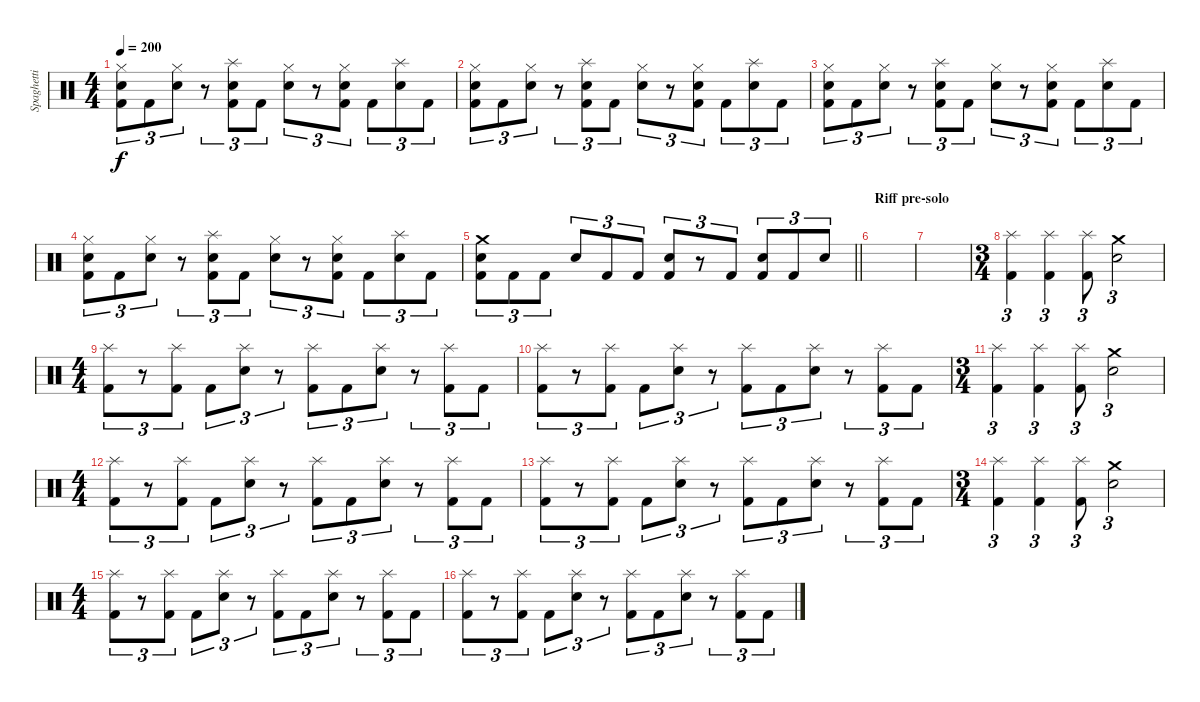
\track ("Spaghetti" "Spaghetti") {instrument percussion}
\staff {score}
\articulation defaults
\ts (4 4)
\tempo 200
\clef neutral
\ks c
("Hi-Hat (closed)" "Snare (hit) 2" "Kick (hit) 2").8{tu (3 2) dy f} "Kick (hit) 2".8{tu (3 2)} ("Hi-Hat (closed)" "Snare (hit) 2").8{tu (3 2)} r.8{tu (3 2)} ("Splash (hit)" "Snare (hit) 2" "Kick (hit) 2").8{tu (3 2)} "Kick (hit) 2".8{tu (3 2)} ("Hi-Hat (closed)" "Snare (hit) 2").8{tu (3 2)} r.8{tu (3 2)} ("Hi-Hat (closed)" "Snare (hit) 2" "Kick (hit) 2").8{tu (3 2)} "Kick (hit) 2".8{tu (3 2)} ("Splash (hit)" "Snare (hit) 2").8{tu (3 2)} "Kick (hit) 2".8{tu (3 2)} |
("Hi-Hat (closed)" "Snare (hit) 2" "Kick (hit) 2").8{tu (3 2)} "Kick (hit) 2".8{tu (3 2)} ("Hi-Hat (closed)" "Snare (hit) 2").8{tu (3 2)} r.8{tu (3 2)} ("Splash (hit)" "Snare (hit) 2" "Kick (hit) 2").8{tu (3 2)} "Kick (hit) 2".8{tu (3 2)} ("Hi-Hat (closed)" "Snare (hit) 2").8{tu (3 2)} r.8{tu (3 2)} ("Hi-Hat (closed)" "Snare (hit) 2" "Kick (hit) 2").8{tu (3 2)} "Kick (hit) 2".8{tu (3 2)} ("Splash (hit)" "Snare (hit) 2").8{tu (3 2)} "Kick (hit) 2".8{tu (3 2)} |
("Hi-Hat (closed)" "Snare (hit) 2" "Kick (hit) 2").8{tu (3 2)} "Kick (hit) 2".8{tu (3 2)} ("Hi-Hat (closed)" "Snare (hit) 2").8{tu (3 2)} r.8{tu (3 2)} ("Splash (hit)" "Snare (hit) 2" "Kick (hit) 2").8{tu (3 2)} "Kick (hit) 2".8{tu (3 2)} ("Hi-Hat (closed)" "Snare (hit) 2").8{tu (3 2)} r.8{tu (3 2)} ("Hi-Hat (closed)" "Snare (hit) 2" "Kick (hit) 2").8{tu (3 2)} "Kick (hit) 2".8{tu (3 2)} ("Splash (hit)" "Snare (hit) 2").8{tu (3 2)} "Kick (hit) 2".8{tu (3 2)} |
("Hi-Hat (closed)" "Snare (hit) 2" "Kick (hit) 2").8{tu (3 2)} "Kick (hit) 2".8{tu (3 2)} ("Hi-Hat (closed)" "Snare (hit) 2").8{tu (3 2)} r.8{tu (3 2)} ("Splash (hit)" "Snare (hit) 2" "Kick (hit) 2").8{tu (3 2)} "Kick (hit) 2".8{tu (3 2)} ("Hi-Hat (closed)" "Snare (hit) 2").8{tu (3 2)} r.8{tu (3 2)} ("Hi-Hat (closed)" "Snare (hit) 2" "Kick (hit) 2").8{tu (3 2)} "Kick (hit) 2".8{tu (3 2)} ("Splash (hit)" "Snare (hit) 2").8{tu (3 2)} "Kick (hit) 2".8{tu (3 2)} |
\barLineRight lightlight
("Crash medium (hit)" "Snare (hit) 2" "Kick (hit) 2").8{tu (3 2)} "Kick (hit) 2".8{tu (3 2)} "Kick (hit) 2".8{tu (3 2)} "Snare (hit) 2".8{tu (3 2)} "Kick (hit) 2".8{tu (3 2)} "Kick (hit) 2".8{tu (3 2)} ("Snare (hit) 2" "Kick (hit) 2").8{tu (3 2)} r.8{tu (3 2)} "Kick (hit) 2".8{tu (3 2)} ("Snare (hit) 2" "Kick (hit) 2").8{tu (3 2)} "Kick (hit) 2".8{tu (3 2)} "Snare (hit) 2".8{tu (3 2)} |
\section ("" "Riff pre-solo")
|
|
\ts (3 4)
("Splash (hit)" "Kick (hit) 2").4{tu (3 2)} ("Splash (hit)" "Kick (hit) 2").4{tu (3 2)} ("Splash (hit)" "Kick (hit) 2").8{tu (3 2)} ("Crash medium (hit)" "Snare (hit) 2").2{tu (3 2)} |
\ts (4 4)
("Splash (hit)" "Kick (hit) 2").8{tu (3 2)} r.8{tu (3 2)} ("Splash (hit)" "Kick (hit) 2").8{tu (3 2)} "Kick (hit) 2".8{tu (3 2)} ("Splash (hit)" "Snare (hit) 2").8{tu (3 2)} r.8{tu (3 2)} ("Splash (hit)" "Kick (hit) 2").8{tu (3 2)} "Kick (hit) 2".8{tu (3 2)} ("Splash (hit)" "Snare (hit) 2").8{tu (3 2)} r.8{tu (3 2)} ("Splash (hit)" "Kick (hit) 2").8{tu (3 2)} "Kick (hit) 2".8{tu (3 2)} |
("Splash (hit)" "Kick (hit) 2").8{tu (3 2)} r.8{tu (3 2)} ("Splash (hit)" "Kick (hit) 2").8{tu (3 2)} "Kick (hit) 2".8{tu (3 2)} ("Splash (hit)" "Snare (hit) 2").8{tu (3 2)} r.8{tu (3 2)} ("Splash (hit)" "Kick (hit) 2").8{tu (3 2)} "Kick (hit) 2".8{tu (3 2)} ("Splash (hit)" "Snare (hit) 2").8{tu (3 2)} r.8{tu (3 2)} ("Splash (hit)" "Kick (hit) 2").8{tu (3 2)} "Kick (hit) 2".8{tu (3 2)} |
\ts (3 4)
("Splash (hit)" "Kick (hit) 2").4{tu (3 2)} ("Splash (hit)" "Kick (hit) 2").4{tu (3 2)} ("Splash (hit)" "Kick (hit) 2").8{tu (3 2)} ("Crash medium (hit)" "Snare (hit) 2").2{tu (3 2)} |
\ts (4 4)
("Splash (hit)" "Kick (hit) 2").8{tu (3 2)} r.8{tu (3 2)} ("Splash (hit)" "Kick (hit) 2").8{tu (3 2)} "Kick (hit) 2".8{tu (3 2)} ("Splash (hit)" "Snare (hit) 2").8{tu (3 2)} r.8{tu (3 2)} ("Splash (hit)" "Kick (hit) 2").8{tu (3 2)} "Kick (hit) 2".8{tu (3 2)} ("Splash (hit)" "Snare (hit) 2").8{tu (3 2)} r.8{tu (3 2)} ("Splash (hit)" "Kick (hit) 2").8{tu (3 2)} "Kick (hit) 2".8{tu (3 2)} |
("Splash (hit)" "Kick (hit) 2").8{tu (3 2)} r.8{tu (3 2)} ("Splash (hit)" "Kick (hit) 2").8{tu (3 2)} "Kick (hit) 2".8{tu (3 2)} ("Splash (hit)" "Snare (hit) 2").8{tu (3 2)} r.8{tu (3 2)} ("Splash (hit)" "Kick (hit) 2").8{tu (3 2)} "Kick (hit) 2".8{tu (3 2)} ("Splash (hit)" "Snare (hit) 2").8{tu (3 2)} r.8{tu (3 2)} ("Splash (hit)" "Kick (hit) 2").8{tu (3 2)} "Kick (hit) 2".8{tu (3 2)} |
\ts (3 4)
("Splash (hit)" "Kick (hit) 2").4{tu (3 2)} ("Splash (hit)" "Kick (hit) 2").4{tu (3 2)} ("Splash (hit)" "Kick (hit) 2").8{tu (3 2)} ("Crash medium (hit)" "Snare (hit) 2").2{tu (3 2)} |
\ts (4 4)
("Splash (hit)" "Kick (hit) 2").8{tu (3 2)} r.8{tu (3 2)} ("Splash (hit)" "Kick (hit) 2").8{tu (3 2)} "Kick (hit) 2".8{tu (3 2)} ("Splash (hit)" "Snare (hit) 2").8{tu (3 2)} r.8{tu (3 2)} ("Splash (hit)" "Kick (hit) 2").8{tu (3 2)} "Kick (hit) 2".8{tu (3 2)} ("Splash (hit)" "Snare (hit) 2").8{tu (3 2)} r.8{tu (3 2)} ("Splash (hit)" "Kick (hit) 2").8{tu (3 2)} "Kick (hit) 2".8{tu (3 2)} |
("Splash (hit)" "Kick (hit) 2").8{tu (3 2)} r.8{tu (3 2)} ("Splash (hit)" "Kick (hit) 2").8{tu (3 2)} "Kick (hit) 2".8{tu (3 2)} ("Splash (hit)" "Snare (hit) 2").8{tu (3 2)} r.8{tu (3 2)} ("Splash (hit)" "Kick (hit) 2").8{tu (3 2)} "Kick (hit) 2".8{tu (3 2)} ("Splash (hit)" "Snare (hit) 2").8{tu (3 2)} r.8{tu (3 2)} ("Splash (hit)" "Kick (hit) 2").8{tu (3 2)} "Kick (hit) 2".8{tu (3 2)}
